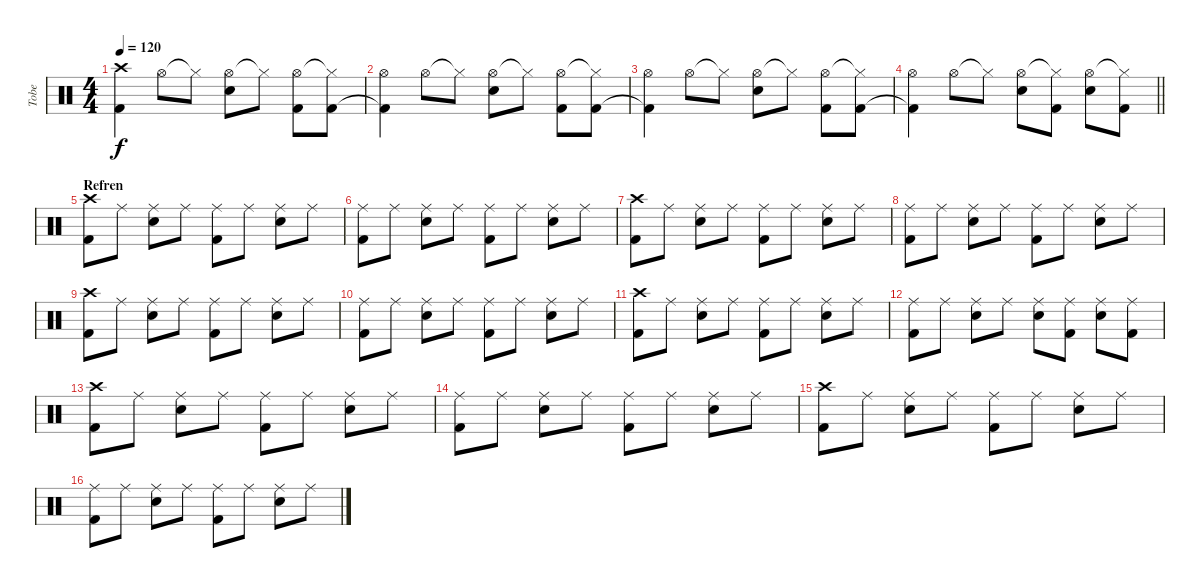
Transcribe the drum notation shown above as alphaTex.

\track ("Tobe" "Tobe") {instrument percussion}
\staff {score}
\articulation defaults
\ts (4 4)
\tempo 120
\clef neutral
\ks c
("Crash high (hit)" "Kick (hit) 2").4{dy f} "Hi-Hat (open)".8 "Hi-Hat (closed)"{t}.8 ("Hi-Hat (open)" "Snare (hit) 2").8 "Hi-Hat (closed)"{t}.8 ("Hi-Hat (open)" "Kick (hit) 2").8 ("Hi-Hat (closed)"{t} "Kick (hit) 2").8 |
("Hi-Hat (open)" "Kick (hit) 2"{t}).4 "Hi-Hat (open)".8 "Hi-Hat (closed)"{t}.8 ("Hi-Hat (open)" "Snare (hit) 2").8 "Hi-Hat (closed)"{t}.8 ("Hi-Hat (open)" "Kick (hit) 2").8 ("Hi-Hat (closed)"{t} "Kick (hit) 2").8 |
("Hi-Hat (open)" "Kick (hit) 2"{t}).4 "Hi-Hat (open)".8 "Hi-Hat (closed)"{t}.8 ("Hi-Hat (open)" "Snare (hit) 2").8 "Hi-Hat (closed)"{t}.8 ("Hi-Hat (open)" "Kick (hit) 2").8 ("Hi-Hat (closed)"{t} "Kick (hit) 2").8 |
\barLineRight lightlight
("Hi-Hat (open)" "Kick (hit) 2"{t}).4 "Hi-Hat (open)".8 "Hi-Hat (closed)"{t}.8 ("Hi-Hat (open)" "Snare (hit) 2").8 ("Hi-Hat (closed)"{t} "Kick (hit) 2").8 ("Hi-Hat (open)" "Snare (hit) 2").8 ("Hi-Hat (closed)"{t} "Kick (hit) 2").8 |
\section ("" "Refren")
("Crash high (hit)" "Kick (hit) 2").8 "Ride (middle)".8 ("Ride (middle)" "Snare (hit) 2").8 "Ride (middle)".8 ("Ride (middle)" "Kick (hit) 2").8 "Ride (middle)".8 ("Ride (middle)" "Snare (hit) 2").8 "Ride (middle)".8 |
("Ride (middle)" "Kick (hit) 2").8 "Ride (middle)".8 ("Ride (middle)" "Snare (hit) 2").8 "Ride (middle)".8 ("Ride (middle)" "Kick (hit) 2").8 "Ride (middle)".8 ("Ride (middle)" "Snare (hit) 2").8 "Ride (middle)".8 |
("Crash high (hit)" "Kick (hit) 2").8 "Ride (middle)".8 ("Ride (middle)" "Snare (hit) 2").8 "Ride (middle)".8 ("Ride (middle)" "Kick (hit) 2").8 "Ride (middle)".8 ("Ride (middle)" "Snare (hit) 2").8 "Ride (middle)".8 |
("Ride (middle)" "Kick (hit) 2").8 "Ride (middle)".8 ("Ride (middle)" "Snare (hit) 2").8 "Ride (middle)".8 ("Ride (middle)" "Kick (hit) 2").8 "Ride (middle)".8 ("Ride (middle)" "Snare (hit) 2").8 "Ride (middle)".8 |
("Crash high (hit)" "Kick (hit) 2").8 "Ride (middle)".8 ("Ride (middle)" "Snare (hit) 2").8 "Ride (middle)".8 ("Ride (middle)" "Kick (hit) 2").8 "Ride (middle)".8 ("Ride (middle)" "Snare (hit) 2").8 "Ride (middle)".8 |
("Ride (middle)" "Kick (hit) 2").8 "Ride (middle)".8 ("Ride (middle)" "Snare (hit) 2").8 "Ride (middle)".8 ("Ride (middle)" "Kick (hit) 2").8 "Ride (middle)".8 ("Ride (middle)" "Snare (hit) 2").8 "Ride (middle)".8 |
("Crash high (hit)" "Kick (hit) 2").8 "Ride (middle)".8 ("Ride (middle)" "Snare (hit) 2").8 "Ride (middle)".8 ("Ride (middle)" "Kick (hit) 2").8 "Ride (middle)".8 ("Ride (middle)" "Snare (hit) 2").8 "Ride (middle)".8 |
("Ride (middle)" "Kick (hit) 2").8 "Ride (middle)".8 ("Ride (middle)" "Snare (hit) 2").8 "Ride (middle)".8 ("Ride (middle)" "Snare (hit) 2").8 ("Ride (middle)" "Kick (hit) 2").8 ("Ride (middle)" "Snare (hit) 2").8 ("Ride (middle)" "Kick (hit) 2").8 |
("Crash high (hit)" "Kick (hit) 2").8 "Ride (middle)".8 ("Ride (middle)" "Snare (hit) 2").8 "Ride (middle)".8 ("Ride (middle)" "Kick (hit) 2").8 "Ride (middle)".8 ("Ride (middle)" "Snare (hit) 2").8 "Ride (middle)".8 |
("Ride (middle)" "Kick (hit) 2").8 "Ride (middle)".8 ("Ride (middle)" "Snare (hit) 2").8 "Ride (middle)".8 ("Ride (middle)" "Kick (hit) 2").8 "Ride (middle)".8 ("Ride (middle)" "Snare (hit) 2").8 "Ride (middle)".8 |
("Crash high (hit)" "Kick (hit) 2").8 "Ride (middle)".8 ("Ride (middle)" "Snare (hit) 2").8 "Ride (middle)".8 ("Ride (middle)" "Kick (hit) 2").8 "Ride (middle)".8 ("Ride (middle)" "Snare (hit) 2").8 "Ride (middle)".8 |
("Ride (middle)" "Kick (hit) 2").8 "Ride (middle)".8 ("Ride (middle)" "Snare (hit) 2").8 "Ride (middle)".8 ("Ride (middle)" "Kick (hit) 2").8 "Ride (middle)".8 ("Ride (middle)" "Snare (hit) 2").8 "Ride (middle)".8
